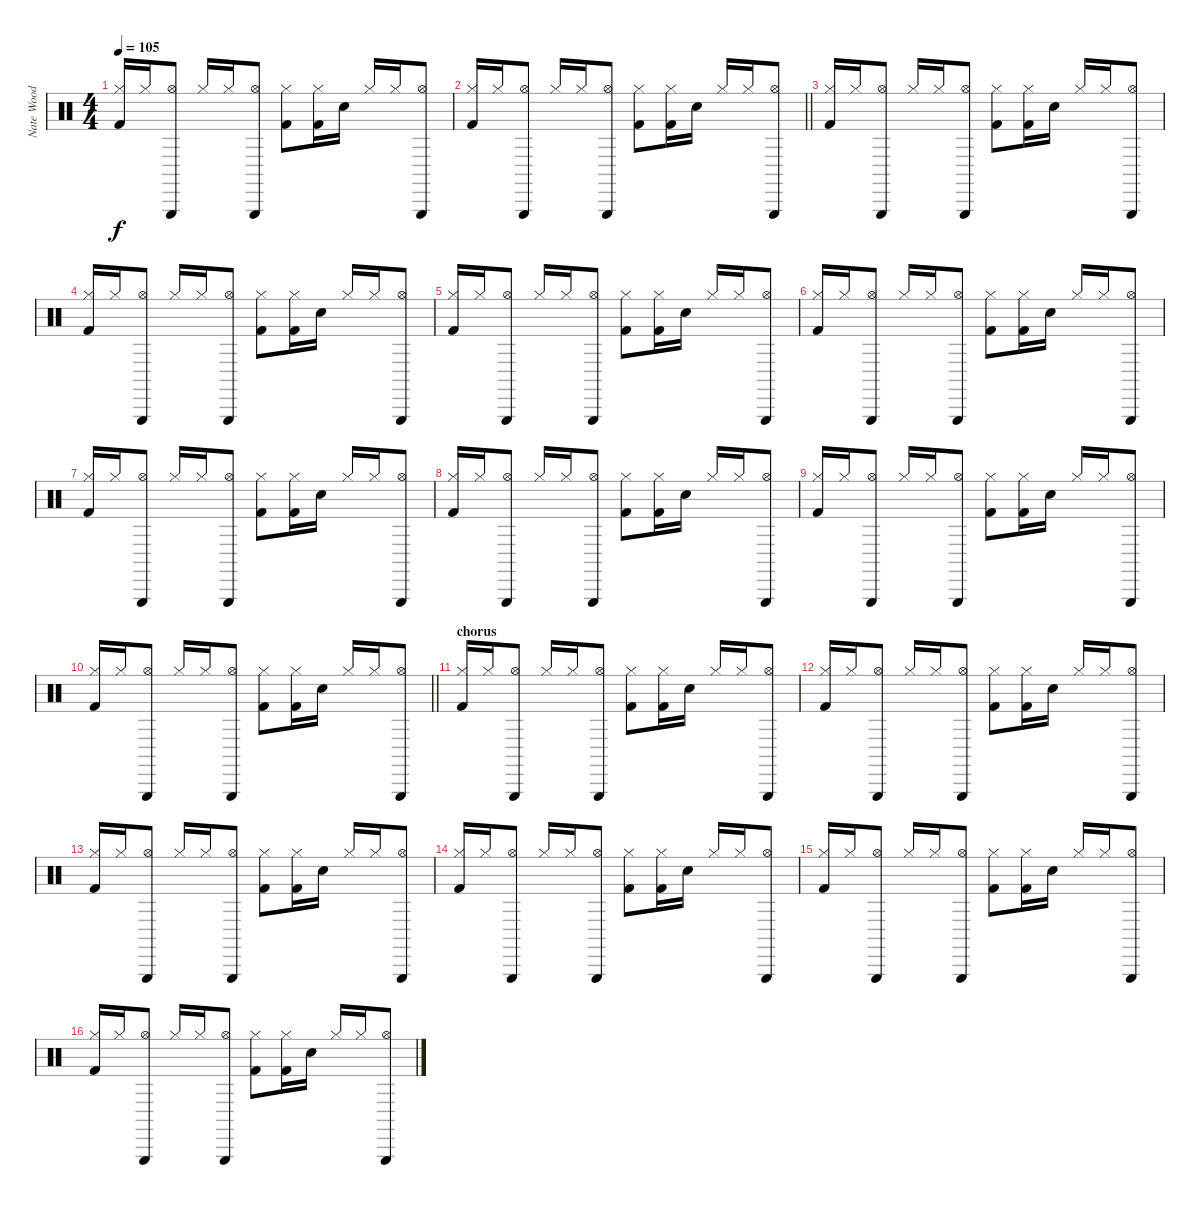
\track ("Nate Wood" "Nate Wood") {instrument percussion}
\staff {score}
\articulation defaults
\ts (4 4)
\tempo 105
\clef neutral
\ks c
("Hi-Hat (closed)" "Kick (hit) 2").16{dy f} "Hi-Hat (closed)".16 ("Triangle (hit)" "Hi-Hat (open)").8 "Hi-Hat (closed)".16 "Hi-Hat (closed)".16 ("Triangle (hit)" "Hi-Hat (open)").8 ("Hi-Hat (closed)" "Kick (hit) 2").8 ("Hi-Hat (closed)" "Kick (hit) 2").16 "Electric Snare (hit)".16 "Hi-Hat (closed)".16 "Hi-Hat (closed)".16 ("Triangle (hit)" "Hi-Hat (open)").8 |
\barLineRight lightlight
("Hi-Hat (closed)" "Kick (hit) 2").16 "Hi-Hat (closed)".16 ("Triangle (hit)" "Hi-Hat (open)").8 "Hi-Hat (closed)".16 "Hi-Hat (closed)".16 ("Triangle (hit)" "Hi-Hat (open)").8 ("Hi-Hat (closed)" "Kick (hit) 2").8 ("Hi-Hat (closed)" "Kick (hit) 2").16 "Electric Snare (hit)".16 "Hi-Hat (closed)".16 "Hi-Hat (closed)".16 ("Triangle (hit)" "Hi-Hat (open)").8 |
("Hi-Hat (closed)" "Kick (hit) 2").16 "Hi-Hat (closed)".16 ("Triangle (hit)" "Hi-Hat (open)").8 "Hi-Hat (closed)".16 "Hi-Hat (closed)".16 ("Triangle (hit)" "Hi-Hat (open)").8 ("Hi-Hat (closed)" "Kick (hit) 2").8 ("Hi-Hat (closed)" "Kick (hit) 2").16 "Electric Snare (hit)".16 "Hi-Hat (closed)".16 "Hi-Hat (closed)".16 ("Triangle (hit)" "Hi-Hat (open)").8 |
("Hi-Hat (closed)" "Kick (hit) 2").16 "Hi-Hat (closed)".16 ("Triangle (hit)" "Hi-Hat (open)").8 "Hi-Hat (closed)".16 "Hi-Hat (closed)".16 ("Triangle (hit)" "Hi-Hat (open)").8 ("Hi-Hat (closed)" "Kick (hit) 2").8 ("Hi-Hat (closed)" "Kick (hit) 2").16 "Electric Snare (hit)".16 "Hi-Hat (closed)".16 "Hi-Hat (closed)".16 ("Triangle (hit)" "Hi-Hat (open)").8 |
("Hi-Hat (closed)" "Kick (hit) 2").16 "Hi-Hat (closed)".16 ("Triangle (hit)" "Hi-Hat (open)").8 "Hi-Hat (closed)".16 "Hi-Hat (closed)".16 ("Triangle (hit)" "Hi-Hat (open)").8 ("Hi-Hat (closed)" "Kick (hit) 2").8 ("Hi-Hat (closed)" "Kick (hit) 2").16 "Electric Snare (hit)".16 "Hi-Hat (closed)".16 "Hi-Hat (closed)".16 ("Triangle (hit)" "Hi-Hat (open)").8 |
("Hi-Hat (closed)" "Kick (hit) 2").16 "Hi-Hat (closed)".16 ("Triangle (hit)" "Hi-Hat (open)").8 "Hi-Hat (closed)".16 "Hi-Hat (closed)".16 ("Triangle (hit)" "Hi-Hat (open)").8 ("Hi-Hat (closed)" "Kick (hit) 2").8 ("Hi-Hat (closed)" "Kick (hit) 2").16 "Electric Snare (hit)".16 "Hi-Hat (closed)".16 "Hi-Hat (closed)".16 ("Triangle (hit)" "Hi-Hat (open)").8 |
("Hi-Hat (closed)" "Kick (hit) 2").16 "Hi-Hat (closed)".16 ("Triangle (hit)" "Hi-Hat (open)").8 "Hi-Hat (closed)".16 "Hi-Hat (closed)".16 ("Triangle (hit)" "Hi-Hat (open)").8 ("Hi-Hat (closed)" "Kick (hit) 2").8 ("Hi-Hat (closed)" "Kick (hit) 2").16 "Electric Snare (hit)".16 "Hi-Hat (closed)".16 "Hi-Hat (closed)".16 ("Triangle (hit)" "Hi-Hat (open)").8 |
("Hi-Hat (closed)" "Kick (hit) 2").16 "Hi-Hat (closed)".16 ("Triangle (hit)" "Hi-Hat (open)").8 "Hi-Hat (closed)".16 "Hi-Hat (closed)".16 ("Triangle (hit)" "Hi-Hat (open)").8 ("Hi-Hat (closed)" "Kick (hit) 2").8 ("Hi-Hat (closed)" "Kick (hit) 2").16 "Electric Snare (hit)".16 "Hi-Hat (closed)".16 "Hi-Hat (closed)".16 ("Triangle (hit)" "Hi-Hat (open)").8 |
("Hi-Hat (closed)" "Kick (hit) 2").16 "Hi-Hat (closed)".16 ("Triangle (hit)" "Hi-Hat (open)").8 "Hi-Hat (closed)".16 "Hi-Hat (closed)".16 ("Triangle (hit)" "Hi-Hat (open)").8 ("Hi-Hat (closed)" "Kick (hit) 2").8 ("Hi-Hat (closed)" "Kick (hit) 2").16 "Electric Snare (hit)".16 "Hi-Hat (closed)".16 "Hi-Hat (closed)".16 ("Triangle (hit)" "Hi-Hat (open)").8 |
\barLineRight lightlight
("Hi-Hat (closed)" "Kick (hit) 2").16 "Hi-Hat (closed)".16 ("Triangle (hit)" "Hi-Hat (open)").8 "Hi-Hat (closed)".16 "Hi-Hat (closed)".16 ("Triangle (hit)" "Hi-Hat (open)").8 ("Hi-Hat (closed)" "Kick (hit) 2").8 ("Hi-Hat (closed)" "Kick (hit) 2").16 "Electric Snare (hit)".16 "Hi-Hat (closed)".16 "Hi-Hat (closed)".16 ("Triangle (hit)" "Hi-Hat (open)").8 |
\section ("" "chorus")
("Hi-Hat (closed)" "Kick (hit) 2").16 "Hi-Hat (closed)".16 ("Triangle (hit)" "Hi-Hat (open)").8 "Hi-Hat (closed)".16 "Hi-Hat (closed)".16 ("Triangle (hit)" "Hi-Hat (open)").8 ("Hi-Hat (closed)" "Kick (hit) 2").8 ("Hi-Hat (closed)" "Kick (hit) 2").16 "Electric Snare (hit)".16 "Hi-Hat (closed)".16 "Hi-Hat (closed)".16 ("Triangle (hit)" "Hi-Hat (open)").8 |
("Hi-Hat (closed)" "Kick (hit) 2").16 "Hi-Hat (closed)".16 ("Triangle (hit)" "Hi-Hat (open)").8 "Hi-Hat (closed)".16 "Hi-Hat (closed)".16 ("Triangle (hit)" "Hi-Hat (open)").8 ("Hi-Hat (closed)" "Kick (hit) 2").8 ("Hi-Hat (closed)" "Kick (hit) 2").16 "Electric Snare (hit)".16 "Hi-Hat (closed)".16 "Hi-Hat (closed)".16 ("Triangle (hit)" "Hi-Hat (open)").8 |
("Hi-Hat (closed)" "Kick (hit) 2").16 "Hi-Hat (closed)".16 ("Triangle (hit)" "Hi-Hat (open)").8 "Hi-Hat (closed)".16 "Hi-Hat (closed)".16 ("Triangle (hit)" "Hi-Hat (open)").8 ("Hi-Hat (closed)" "Kick (hit) 2").8 ("Hi-Hat (closed)" "Kick (hit) 2").16 "Electric Snare (hit)".16 "Hi-Hat (closed)".16 "Hi-Hat (closed)".16 ("Triangle (hit)" "Hi-Hat (open)").8 |
("Hi-Hat (closed)" "Kick (hit) 2").16 "Hi-Hat (closed)".16 ("Triangle (hit)" "Hi-Hat (open)").8 "Hi-Hat (closed)".16 "Hi-Hat (closed)".16 ("Triangle (hit)" "Hi-Hat (open)").8 ("Hi-Hat (closed)" "Kick (hit) 2").8 ("Hi-Hat (closed)" "Kick (hit) 2").16 "Electric Snare (hit)".16 "Hi-Hat (closed)".16 "Hi-Hat (closed)".16 ("Triangle (hit)" "Hi-Hat (open)").8 |
("Hi-Hat (closed)" "Kick (hit) 2").16 "Hi-Hat (closed)".16 ("Triangle (hit)" "Hi-Hat (open)").8 "Hi-Hat (closed)".16 "Hi-Hat (closed)".16 ("Triangle (hit)" "Hi-Hat (open)").8 ("Hi-Hat (closed)" "Kick (hit) 2").8 ("Hi-Hat (closed)" "Kick (hit) 2").16 "Electric Snare (hit)".16 "Hi-Hat (closed)".16 "Hi-Hat (closed)".16 ("Triangle (hit)" "Hi-Hat (open)").8 |
("Hi-Hat (closed)" "Kick (hit) 2").16 "Hi-Hat (closed)".16 ("Triangle (hit)" "Hi-Hat (open)").8 "Hi-Hat (closed)".16 "Hi-Hat (closed)".16 ("Triangle (hit)" "Hi-Hat (open)").8 ("Hi-Hat (closed)" "Kick (hit) 2").8 ("Hi-Hat (closed)" "Kick (hit) 2").16 "Electric Snare (hit)".16 "Hi-Hat (closed)".16 "Hi-Hat (closed)".16 ("Triangle (hit)" "Hi-Hat (open)").8
